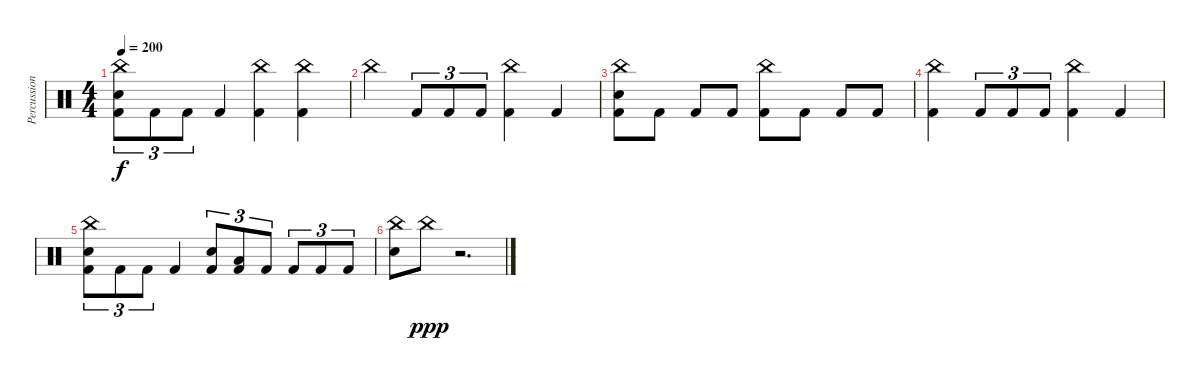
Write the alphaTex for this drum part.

\track ("Percussion" "Percussion") {instrument percussion}
\staff {score}
\articulation defaults
\ts (4 4)
\tempo 200
\clef neutral
\ks c
("China (hit)" "Electric Snare (hit)" "Kick (hit) 2").8{tu (3 2) dy f} "Kick (hit) 2".8{tu (3 2)} "Kick (hit) 2".8{tu (3 2)} "Kick (hit) 2".4 ("China (hit)" "Kick (hit) 2").4 ("China (hit)" "Kick (hit) 2").4 |
"China (hit)".4 "Kick (hit) 2".8{tu (3 2)} "Kick (hit) 2".8{tu (3 2)} "Kick (hit) 2".8{tu (3 2)} ("China (hit)" "Kick (hit) 2").4 "Kick (hit) 2".4 |
("China (hit)" "Electric Snare (hit)" "Kick (hit) 2").8 "Kick (hit) 2".8 "Kick (hit) 2".8 "Kick (hit) 2".8 ("China (hit)" "Kick (hit) 2").8 "Kick (hit) 2".8 "Kick (hit) 2".8 "Kick (hit) 2".8 |
("China (hit)" "Kick (hit) 2").4 "Kick (hit) 2".8{tu (3 2)} "Kick (hit) 2".8{tu (3 2)} "Kick (hit) 2".8{tu (3 2)} ("China (hit)" "Kick (hit) 2").4 "Kick (hit) 2".4 |
("China (hit)" "Electric Snare (hit)" "Kick (hit) 2").8{tu (3 2)} "Kick (hit) 2".8{tu (3 2)} "Kick (hit) 2".8{tu (3 2)} "Kick (hit) 2".4 ("Electric Snare (hit)" "Kick (hit) 2").8{tu (3 2)} ("Low Tom (hit)" "Kick (hit) 2").8{tu (3 2)} "Kick (hit) 2".8{tu (3 2)} "Kick (hit) 2".8{tu (3 2)} "Kick (hit) 2".8{tu (3 2)} "Kick (hit) 2".8{tu (3 2)} |
("China (hit)" "Electric Snare (hit)").8 "China (hit)".8{dy ppp} r.2{d}
